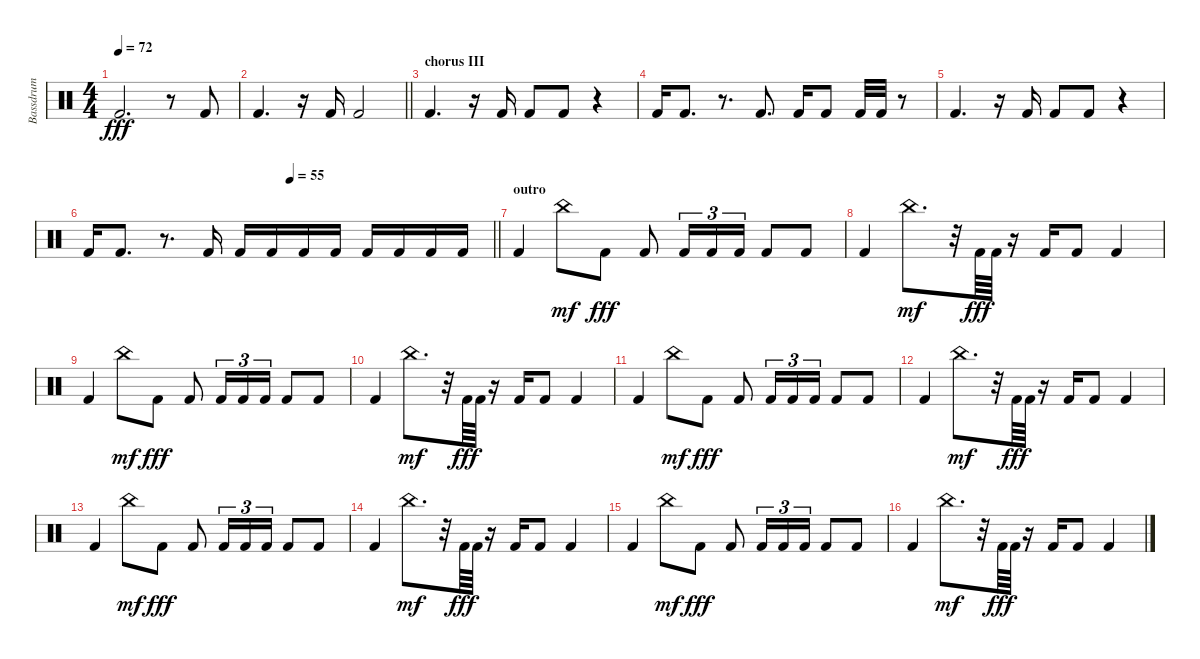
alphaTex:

\track ("Bassdrum" "Bassdrum") {instrument percussion}
\staff {score}
\articulation defaults
\ts (4 4)
\tempo 72
\clef neutral
\ks c "Kick (hit) 2".2{d dy fff}
r.8 "Kick (hit) 2".8 |
\barLineRight lightlight "Kick (hit) 2".4{d}
r.16 "Kick (hit) 2".16 "Kick (hit) 2".2 |
\section ("" "chorus III")
"Kick (hit) 2".4{d} r.16 "Kick (hit) 2".16 "Kick (hit) 2".8 "Kick (hit) 2".8 r.4 |
"Kick (hit) 2".16 "Kick (hit) 2".8{d} r.8{d} "Kick (hit) 2".8{d} "Kick (hit) 2".16 "Kick (hit) 2".8 "Kick (hit) 2".32 "Kick (hit) 2".32 r.8 |
"Kick (hit) 2".4{d} r.16 "Kick (hit) 2".16 "Kick (hit) 2".8 "Kick (hit) 2".8 r.4 |
\tempo (55 0.5)
\barLineRight lightlight "Kick (hit) 2".16 "Kick (hit) 2".8{d}
r.8{d} "Kick (hit) 2".16 "Kick (hit) 2".16 "Kick (hit) 2".16 "Kick (hit) 2".16 "Kick (hit) 2".16 "Kick (hit) 2".16 "Kick (hit) 2".16 "Kick (hit) 2".16 "Kick (hit) 2".16 |
\section ("" "outro")
"Kick (hit) 2".4 "China (hit)".8{dy mf} "Kick (hit) 2".8{dy fff} "Kick (hit) 2".8 "Kick (hit) 2".16{tu (3 2)} "Kick (hit) 2".16{tu (3 2)} "Kick (hit) 2".16{tu (3 2)} "Kick (hit) 2".8 "Kick (hit) 2".8 |
"Kick (hit) 2".4 "China (hit)".8{d dy mf} r.32 "Kick (hit) 2".64{dy fff} "Kick (hit) 2".64 r.16 "Kick (hit) 2".16 "Kick (hit) 2".8 "Kick (hit) 2".4 |
"Kick (hit) 2".4 "China (hit)".8{dy mf} "Kick (hit) 2".8{dy fff} "Kick (hit) 2".8 "Kick (hit) 2".16{tu (3 2)} "Kick (hit) 2".16{tu (3 2)} "Kick (hit) 2".16{tu (3 2)} "Kick (hit) 2".8 "Kick (hit) 2".8 |
"Kick (hit) 2".4 "China (hit)".8{d dy mf} r.32 "Kick (hit) 2".64{dy fff} "Kick (hit) 2".64 r.16 "Kick (hit) 2".16 "Kick (hit) 2".8 "Kick (hit) 2".4 |
"Kick (hit) 2".4{volume 11} "China (hit)".8{dy mf} "Kick (hit) 2".8{dy fff} "Kick (hit) 2".8 "Kick (hit) 2".16{tu (3 2)} "Kick (hit) 2".16{tu (3 2)} "Kick (hit) 2".16{tu (3 2)} "Kick (hit) 2".8 "Kick (hit) 2".8 |
"Kick (hit) 2".4 "China (hit)".8{d dy mf} r.32 "Kick (hit) 2".64{dy fff} "Kick (hit) 2".64 r.16 "Kick (hit) 2".16 "Kick (hit) 2".8 "Kick (hit) 2".4 |
"Kick (hit) 2".4 "China (hit)".8{dy mf} "Kick (hit) 2".8{dy fff} "Kick (hit) 2".8 "Kick (hit) 2".16{tu (3 2)} "Kick (hit) 2".16{tu (3 2)} "Kick (hit) 2".16{tu (3 2)} "Kick (hit) 2".8 "Kick (hit) 2".8 |
"Kick (hit) 2".4 "China (hit)".8{d dy mf} r.32 "Kick (hit) 2".64{dy fff} "Kick (hit) 2".64 r.16 "Kick (hit) 2".16 "Kick (hit) 2".8 "Kick (hit) 2".4 |
"Kick (hit) 2".4{volume 6} "China (hit)".8{dy mf} "Kick (hit) 2".8{dy fff} "Kick (hit) 2".8 "Kick (hit) 2".16{tu (3 2)} "Kick (hit) 2".16{tu (3 2)} "Kick (hit) 2".16{tu (3 2)} "Kick (hit) 2".8 "Kick (hit) 2".8 |
"Kick (hit) 2".4 "China (hit)".8{d dy mf} r.32 "Kick (hit) 2".64{dy fff} "Kick (hit) 2".64 r.16 "Kick (hit) 2".16 "Kick (hit) 2".8 "Kick (hit) 2".4
